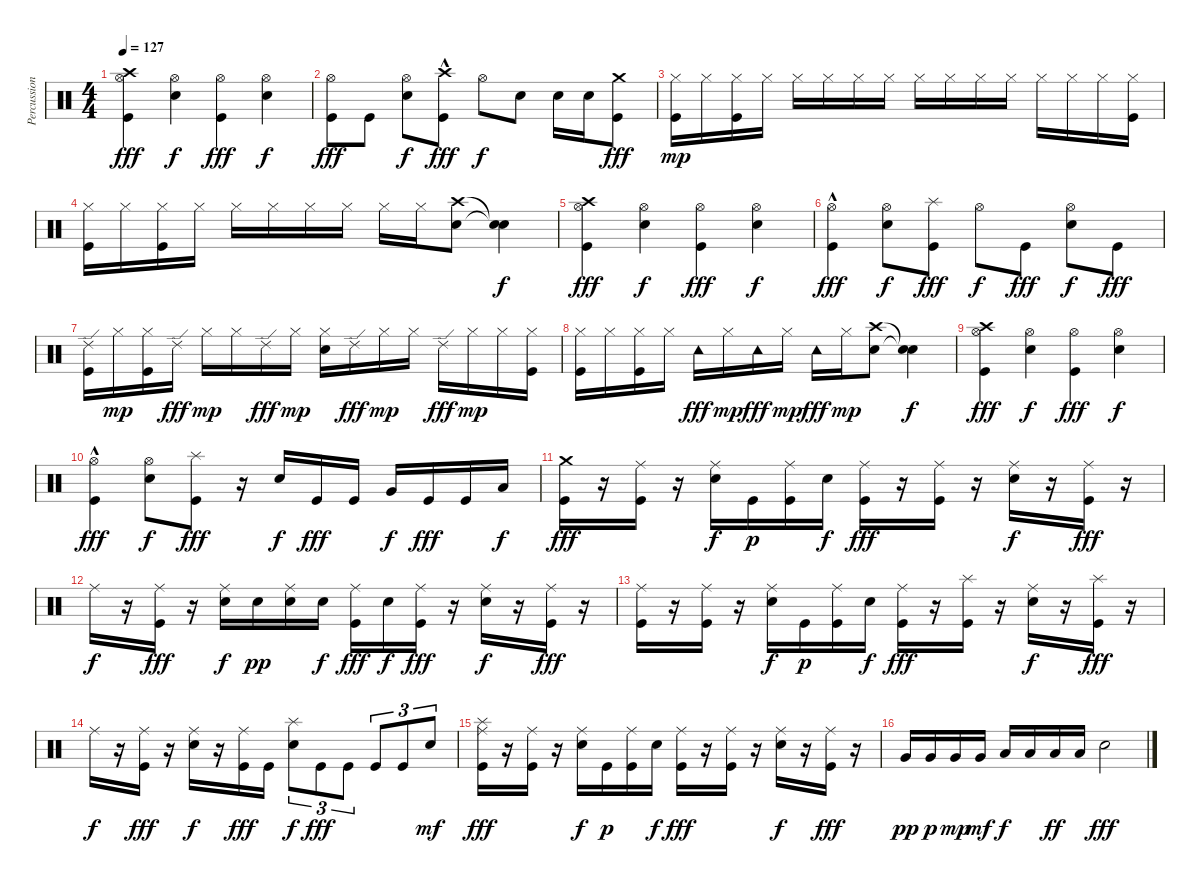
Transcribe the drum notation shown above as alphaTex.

\track ("Percussion" "Percussion") {instrument percussion}
\staff {score}
\articulation defaults
\ts (4 4)
\tempo 127
\clef neutral
\ks c
("Crash high (hit)" "Hi-Hat (open)" "Kick (hit)").4{dy fff} ("Electric Snare (hit)" "Hi-Hat (open)").4{dy f} ("Hi-Hat (open)" "Kick (hit)").4{dy fff} ("Electric Snare (hit)" "Hi-Hat (open)").4{dy f} |
("Hi-Hat (open)" "Kick (hit)").8{dy fff} "Kick (hit)".8 ("Electric Snare (hit)" "Hi-Hat (open)").8{dy f} ("Crash high (hit)" "Kick (hit)"{hac}).8{dy fff} "Hi-Hat (open)".8{dy f} "Electric Snare (hit)".8 "Electric Snare (hit)".16 "Electric Snare (hit)".16 ("Crash medium (hit)" "Kick (hit)").8{dy fff} |
("Kick (hit)" "Hi-Hat (closed)").16{dy mp} "Hi-Hat (closed)".16 ("Kick (hit)" "Hi-Hat (closed)").16 "Hi-Hat (closed)".16 "Hi-Hat (closed)".16 "Hi-Hat (closed)".16 "Hi-Hat (closed)".16 "Hi-Hat (closed)".16 "Hi-Hat (closed)".16 "Hi-Hat (closed)".16 "Hi-Hat (closed)".16 "Hi-Hat (closed)".16 "Hi-Hat (closed)".16 "Hi-Hat (closed)".16 "Hi-Hat (closed)".16 ("Kick (hit)" "Hi-Hat (closed)").16 |
("Kick (hit)" "Hi-Hat (closed)").16 "Hi-Hat (closed)".16 ("Kick (hit)" "Hi-Hat (closed)").16 "Hi-Hat (closed)".16 "Hi-Hat (closed)".16 "Hi-Hat (closed)".16 "Hi-Hat (closed)".16 "Hi-Hat (closed)".16 "Hi-Hat (closed)".16 "Hi-Hat (closed)".16 ("Crash high (hit)" "Electric Snare (hit)").8 ("Snare (hit)"{t} "Snare (hit)"{t}).4{dy f} |
("Crash high (hit)" "Hi-Hat (open)" "Kick (hit)").4{dy fff} ("Electric Snare (hit)" "Hi-Hat (open)").4{dy f} ("Hi-Hat (open)" "Kick (hit)").4{dy fff} ("Electric Snare (hit)" "Hi-Hat (open)").4{dy f} |
("Hi-Hat (open)" "Kick (hit)"{hac}).4{dy fff} ("Electric Snare (hit)" "Hi-Hat (open)").8{dy f} ("Splash (hit)" "Kick (hit)").8{dy fff} "Hi-Hat (open)".8{dy f} "Kick (hit)".8{dy fff} ("Hi-Hat (open)" "Electric Snare (hit)").8{dy f} "Kick (hit)".8{dy fff} |
("Kick (hit)" "Ride (edge) 2").16 "Hi-Hat (closed)".16{dy mp} ("Kick (hit)" "Hi-Hat (closed)").16 "Ride (edge) 2".16{dy fff} "Hi-Hat (closed)".16{dy mp} "Hi-Hat (closed)".16 "Ride (edge) 2".16{dy fff} "Hi-Hat (closed)".16{dy mp} ("Electric Snare (hit)" "Hi-Hat (closed)").16 "Ride (edge) 2".16{dy fff} "Hi-Hat (closed)".16{dy mp} "Hi-Hat (closed)".16 "Ride (edge) 2".16{dy fff} "Hi-Hat (closed)".16{dy mp} "Hi-Hat (closed)".16 ("Kick (hit)" "Hi-Hat (closed)").16 |
("Kick (hit)" "Hi-Hat (closed)").16 "Hi-Hat (closed)".16 ("Kick (hit)" "Hi-Hat (closed)").16 "Hi-Hat (closed)".16 "Tambourine (hit)".16{dy fff} "Hi-Hat (closed)".16{dy mp} "Tambourine (hit)".16{dy fff} "Hi-Hat (closed)".16{dy mp} "Tambourine (hit)".16{dy fff} "Hi-Hat (closed)".16{dy mp} ("Crash high (hit)" "Electric Snare (hit)").8 ("Snare (hit)"{t} "Snare (hit)"{t}).4{dy f} |
("Crash high (hit)" "Hi-Hat (open)" "Kick (hit)").4{dy fff} ("Electric Snare (hit)" "Hi-Hat (open)").4{dy f} ("Hi-Hat (open)" "Kick (hit)").4{dy fff} ("Electric Snare (hit)" "Hi-Hat (open)").4{dy f} |
("Hi-Hat (open)" "Kick (hit)"{hac}).4{dy fff} ("Electric Snare (hit)" "Hi-Hat (open)").8{dy f} ("Splash (hit)" "Kick (hit)").8{dy fff} r.16 "Electric Snare (hit)".16{dy f} "Kick (hit)".16{dy fff} "Kick (hit)".16 "Very Low Tom (hit)".16{dy f} "Kick (hit)".16{dy fff} "Kick (hit)".16 "Low Floor Tom (hit)".16{dy f} |
("Crash medium (hit)" "Kick (hit)").16{dy fff} r.16 ("Ride (middle)" "Kick (hit)").16 r.16 ("Ride (middle)" "Electric Snare (hit)").16{dy f} "Kick (hit)".16{dy p} ("Ride (middle)" "Kick (hit)").16 "Electric Snare (hit)".16{dy f} ("Ride (middle)" "Kick (hit)").16{dy fff} r.16 ("Ride (middle)" "Kick (hit)").16 r.16 ("Ride (middle)" "Electric Snare (hit)").16{dy f} r.16 ("Ride (middle)" "Kick (hit)").16{dy fff} r.16 |
"Ride (middle)".16{dy f} r.16 ("Ride (middle)" "Kick (hit)").16{dy fff} r.16 ("Ride (middle)" "Electric Snare (hit)").16{dy f} "Electric Snare (hit)".16{dy pp} ("Ride (middle)" "Electric Snare (hit)").16 "Electric Snare (hit)".16{dy f} ("Ride (middle)" "Kick (hit)").16{dy fff} "Electric Snare (hit)".16{dy f} ("Ride (middle)" "Kick (hit)").16{dy fff} r.16 ("Ride (middle)" "Electric Snare (hit)").16{dy f} r.16 ("Ride (middle)" "Kick (hit)").16{dy fff} r.16 |
("Ride (middle)" "Kick (hit)").16 r.16 ("Ride (middle)" "Kick (hit)").16 r.16 ("Ride (middle)" "Electric Snare (hit)").16{dy f} "Kick (hit)".16{dy p} ("Ride (middle)" "Kick (hit)").16 "Electric Snare (hit)".16{dy f} ("Ride (middle)" "Kick (hit)").16{dy fff} r.16 ("Splash (hit)" "Kick (hit)").16 r.16 ("Ride (middle)" "Electric Snare (hit)").16{dy f} r.16 ("Splash (hit)" "Kick (hit)").16{dy fff} r.16 |
"Ride (middle)".16{dy f} r.16 ("Ride (middle)" "Kick (hit)").16{dy fff} r.16 ("Ride (middle)" "Electric Snare (hit)").16{dy f} r.16 ("Ride (middle)" "Kick (hit)").16{dy fff} "Kick (hit)".16 ("Splash (hit)" "Electric Snare (hit)").8{tu (3 2) dy f} "Kick (hit)".8{tu (3 2) dy fff} "Kick (hit)".8{tu (3 2)} "Kick (hit)".8{tu (3 2)} "Kick (hit)".8{tu (3 2)} "Electric Snare (hit)".8{tu (3 2) dy mf} |
("Splash (hit)" "Ride (middle)" "Kick (hit)").16{dy fff} r.16 ("Ride (middle)" "Kick (hit)").16 r.16 ("Ride (middle)" "Electric Snare (hit)").16{dy f} "Kick (hit)".16{dy p} ("Ride (middle)" "Kick (hit)").16 "Electric Snare (hit)".16{dy f} ("Ride (middle)" "Kick (hit)").16{dy fff} r.16 ("Ride (middle)" "Kick (hit)").16 r.16 ("Ride (middle)" "Electric Snare (hit)").16{dy f} r.16 ("Ride (middle)" "Kick (hit)").16{dy fff} r.16 |
"Very Low Tom (hit)".16{dy pp} "Very Low Tom (hit)".16{dy p} "Very Low Tom (hit)".16{dy mp} "Very Low Tom (hit)".16{dy mf} "Low Floor Tom (hit)".16{dy f} "Low Floor Tom (hit)".16 "Low Floor Tom (hit)".16{dy ff} "Low Floor Tom (hit)".16 "Electric Snare (hit)".2{dy fff}
